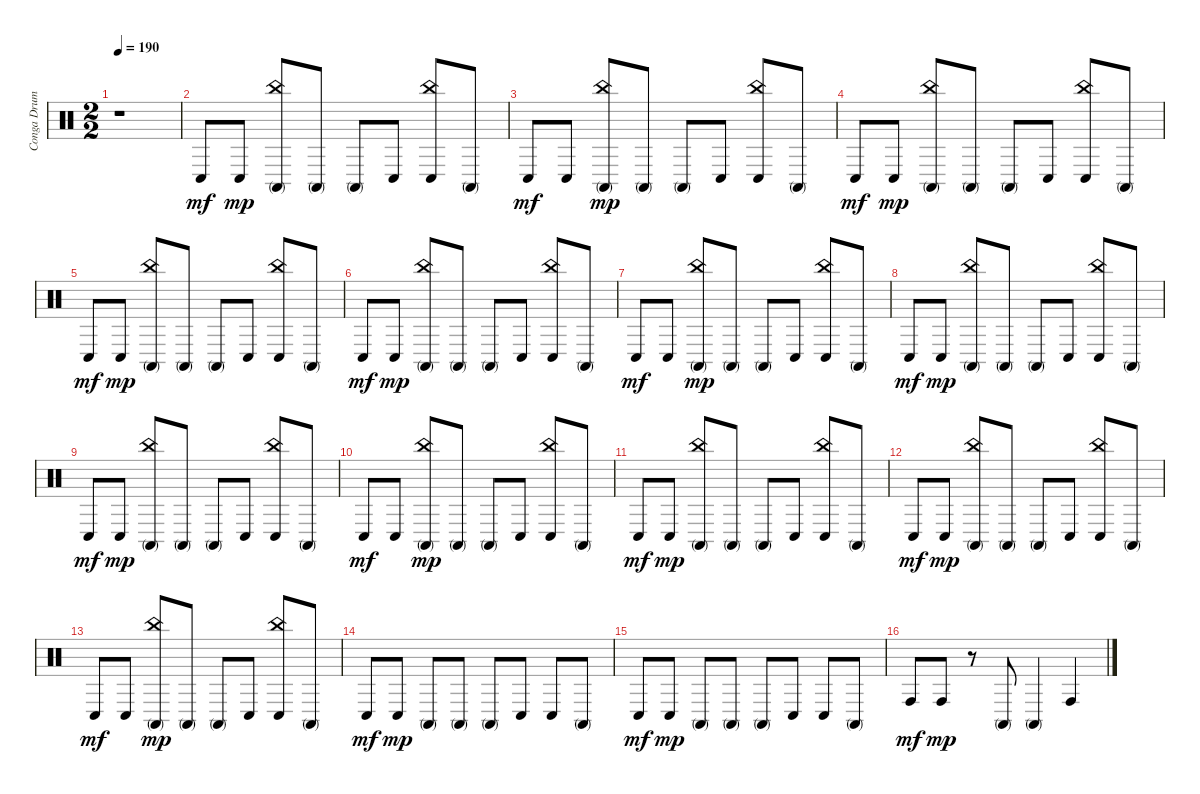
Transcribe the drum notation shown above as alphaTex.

\track ("Conga Drums" "Conga Drum") {instrument percussion}
\staff {score}
\articulation defaults
\ts (2 2)
\tempo 190
\clef neutral
\ks c
r.1{dy mf} |
"Conga low (hit)".8 "Conga low (hit)".8{dy mp} ("China (hit)" "Conga high (mute)").8 "Conga high (mute)".8 "Conga high (mute)".8 "Conga low (hit)".8 ("China (hit)" "Conga low (hit)").8 "Conga high (mute)".8 |
"Conga low (hit)".8{dy mf} "Conga low (hit)".8 ("China (hit)" "Conga high (mute)").8{dy mp} "Conga high (mute)".8 "Conga high (mute)".8 "Conga low (hit)".8 ("China (hit)" "Conga low (hit)").8 "Conga high (mute)".8 |
"Conga low (hit)".8{dy mf} "Conga low (hit)".8{dy mp} ("China (hit)" "Conga high (mute)").8 "Conga high (mute)".8 "Conga high (mute)".8 "Conga low (hit)".8 ("China (hit)" "Conga low (hit)").8 "Conga high (mute)".8 |
"Conga low (hit)".8{dy mf} "Conga low (hit)".8{dy mp} ("China (hit)" "Conga high (mute)").8 "Conga high (mute)".8 "Conga high (mute)".8 "Conga low (hit)".8 ("China (hit)" "Conga low (hit)").8 "Conga high (mute)".8 |
"Conga low (hit)".8{dy mf} "Conga low (hit)".8{dy mp} ("China (hit)" "Conga high (mute)").8 "Conga high (mute)".8 "Conga high (mute)".8 "Conga low (hit)".8 ("China (hit)" "Conga low (hit)").8 "Conga high (mute)".8 |
"Conga low (hit)".8{dy mf} "Conga low (hit)".8 ("China (hit)" "Conga high (mute)").8{dy mp} "Conga high (mute)".8 "Conga high (mute)".8 "Conga low (hit)".8 ("China (hit)" "Conga low (hit)").8 "Conga high (mute)".8 |
"Conga low (hit)".8{dy mf} "Conga low (hit)".8{dy mp} ("China (hit)" "Conga high (mute)").8 "Conga high (mute)".8 "Conga high (mute)".8 "Conga low (hit)".8 ("China (hit)" "Conga low (hit)").8 "Conga high (mute)".8 |
"Conga low (hit)".8{dy mf} "Conga low (hit)".8{dy mp} ("China (hit)" "Conga high (mute)").8 "Conga high (mute)".8 "Conga high (mute)".8 "Conga low (hit)".8 ("China (hit)" "Conga low (hit)").8 "Conga high (mute)".8 |
"Conga low (hit)".8{dy mf} "Conga low (hit)".8 ("China (hit)" "Conga high (mute)").8{dy mp} "Conga high (mute)".8 "Conga high (mute)".8 "Conga low (hit)".8 ("China (hit)" "Conga low (hit)").8 "Conga high (mute)".8 |
"Conga low (hit)".8{dy mf} "Conga low (hit)".8{dy mp} ("China (hit)" "Conga high (mute)").8 "Conga high (mute)".8 "Conga high (mute)".8 "Conga low (hit)".8 ("China (hit)" "Conga low (hit)").8 "Conga high (mute)".8 |
"Conga low (hit)".8{dy mf} "Conga low (hit)".8{dy mp} ("China (hit)" "Conga high (mute)").8 "Conga high (mute)".8 "Conga high (mute)".8 "Conga low (hit)".8 ("China (hit)" "Conga low (hit)").8 "Conga high (mute)".8 |
"Conga low (hit)".8{dy mf} "Conga low (hit)".8 ("China (hit)" "Conga high (mute)").8{dy mp} "Conga high (mute)".8 "Conga high (mute)".8 "Conga low (hit)".8 ("China (hit)" "Conga low (hit)").8 "Conga high (mute)".8 |
"Conga low (hit)".8{dy mf} "Conga low (hit)".8{dy mp} "Conga high (mute)".8 "Conga high (mute)".8 "Conga high (mute)".8 "Conga low (hit)".8 "Conga low (hit)".8 "Conga high (mute)".8 |
"Conga low (hit)".8{dy mf} "Conga low (hit)".8{dy mp} "Conga high (mute)".8 "Conga high (mute)".8 "Conga high (mute)".8 "Conga low (hit)".8 "Conga low (hit)".8 "Conga high (mute)".8 |
"Conga high (hit)".8{dy mf} "Conga high (hit)".8{dy mp} r.8 "Conga high (mute)".8 "Conga high (mute)".4 "Conga high (hit)".4
